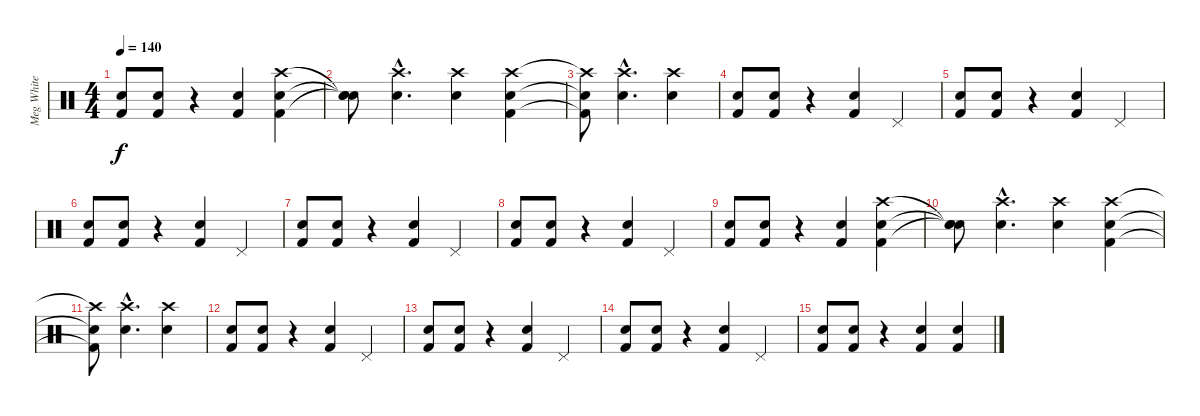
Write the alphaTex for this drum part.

\track ("Meg White" "Meg White") {instrument percussion}
\staff {score}
\articulation defaults
\ts (4 4)
\tempo 140
\clef neutral
\ks c
("Electric Snare (hit)" "Kick (hit) 2").8{dy f} ("Electric Snare (hit)" "Kick (hit) 2").8 r.4 ("Electric Snare (hit)" "Kick (hit) 2").4 ("Crash high (hit)" "Electric Snare (hit)" "Kick (hit) 2").4 |
("Snare (hit)"{t} "Snare (hit)"{t} "Snare (hit)"{t}).8 ("Crash high (hit)"{hac} "Electric Snare (hit)"{hac}).4{d} ("Crash high (hit)" "Electric Snare (hit)").4 ("Crash high (hit)" "Electric Snare (hit)" "Kick (hit) 2").4 |
("Crash high (hit)"{t} "Electric Snare (hit)"{t} "Kick (hit) 2"{t}).8 ("Crash high (hit)"{hac} "Electric Snare (hit)"{hac}).4{d} ("Crash high (hit)" "Electric Snare (hit)").4 |
("Electric Snare (hit)" "Kick (hit) 2").8 ("Electric Snare (hit)" "Kick (hit) 2").8 r.4 ("Electric Snare (hit)" "Kick (hit) 2").4 "Pedal Hi-Hat (hit)".4 |
("Electric Snare (hit)" "Kick (hit) 2").8 ("Electric Snare (hit)" "Kick (hit) 2").8 r.4 ("Electric Snare (hit)" "Kick (hit) 2").4 "Pedal Hi-Hat (hit)".4 |
("Electric Snare (hit)" "Kick (hit) 2").8 ("Electric Snare (hit)" "Kick (hit) 2").8 r.4 ("Electric Snare (hit)" "Kick (hit) 2").4 "Pedal Hi-Hat (hit)".4 |
("Electric Snare (hit)" "Kick (hit) 2").8 ("Electric Snare (hit)" "Kick (hit) 2").8 r.4 ("Electric Snare (hit)" "Kick (hit) 2").4 "Pedal Hi-Hat (hit)".4 |
("Electric Snare (hit)" "Kick (hit) 2").8 ("Electric Snare (hit)" "Kick (hit) 2").8 r.4 ("Electric Snare (hit)" "Kick (hit) 2").4 "Pedal Hi-Hat (hit)".4 |
("Electric Snare (hit)" "Kick (hit) 2").8 ("Electric Snare (hit)" "Kick (hit) 2").8 r.4 ("Electric Snare (hit)" "Kick (hit) 2").4 ("Crash high (hit)" "Electric Snare (hit)" "Kick (hit) 2").4 |
("Snare (hit)"{t} "Snare (hit)"{t} "Snare (hit)"{t}).8 ("Crash high (hit)"{hac} "Electric Snare (hit)"{hac}).4{d} ("Crash high (hit)" "Electric Snare (hit)").4 ("Crash high (hit)" "Electric Snare (hit)" "Kick (hit) 2").4 |
("Crash high (hit)"{t} "Electric Snare (hit)"{t} "Kick (hit) 2"{t}).8 ("Crash high (hit)"{hac} "Electric Snare (hit)"{hac}).4{d} ("Crash high (hit)" "Electric Snare (hit)").4 |
("Electric Snare (hit)" "Kick (hit) 2").8 ("Electric Snare (hit)" "Kick (hit) 2").8 r.4 ("Electric Snare (hit)" "Kick (hit) 2").4 "Pedal Hi-Hat (hit)".4 |
("Electric Snare (hit)" "Kick (hit) 2").8 ("Electric Snare (hit)" "Kick (hit) 2").8 r.4 ("Electric Snare (hit)" "Kick (hit) 2").4 "Pedal Hi-Hat (hit)".4 |
("Electric Snare (hit)" "Kick (hit) 2").8 ("Electric Snare (hit)" "Kick (hit) 2").8 r.4 ("Electric Snare (hit)" "Kick (hit) 2").4 "Pedal Hi-Hat (hit)".4 |
("Electric Snare (hit)" "Kick (hit) 2").8 ("Electric Snare (hit)" "Kick (hit) 2").8 r.4 ("Electric Snare (hit)" "Kick (hit) 2").4 ("Electric Snare (hit)" "Kick (hit) 2").4
